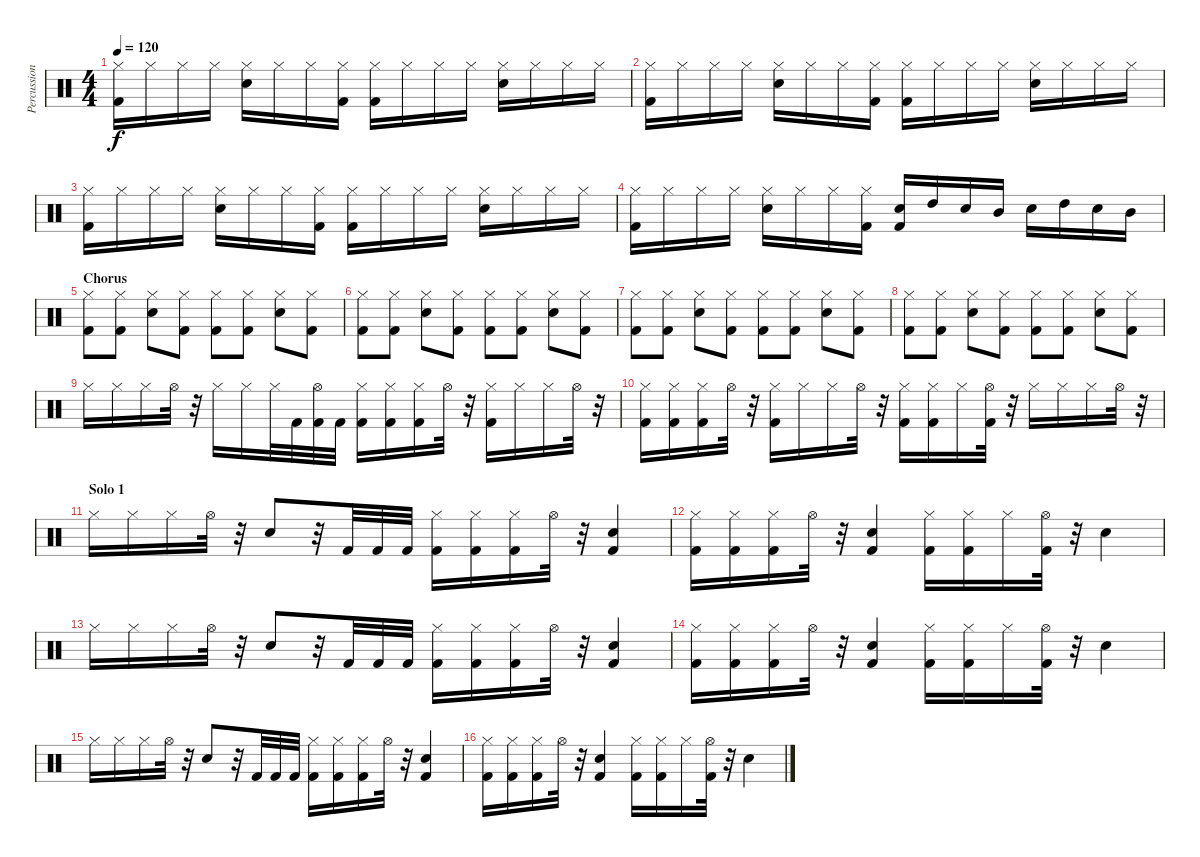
\track ("Percussion" "Percussion") {instrument percussion}
\staff {score}
\articulation defaults
\ts (4 4)
\tempo 120
\clef neutral
\ks c
("Hi-Hat (closed)" "Kick (hit) 2").16{dy f} "Hi-Hat (closed)".16 "Hi-Hat (closed)".16 "Hi-Hat (closed)".16 ("Hi-Hat (closed)" "Electric Snare (hit)").16 "Hi-Hat (closed)".16 "Hi-Hat (closed)".16 ("Hi-Hat (closed)" "Kick (hit) 2").16 ("Hi-Hat (closed)" "Kick (hit) 2").16 "Hi-Hat (closed)".16 "Hi-Hat (closed)".16 "Hi-Hat (closed)".16 ("Hi-Hat (closed)" "Electric Snare (hit)").16 "Hi-Hat (closed)".16 "Hi-Hat (closed)".16 "Hi-Hat (closed)".16 |
("Hi-Hat (closed)" "Kick (hit) 2").16 "Hi-Hat (closed)".16 "Hi-Hat (closed)".16 "Hi-Hat (closed)".16 ("Hi-Hat (closed)" "Electric Snare (hit)").16 "Hi-Hat (closed)".16 "Hi-Hat (closed)".16 ("Hi-Hat (closed)" "Kick (hit) 2").16 ("Hi-Hat (closed)" "Kick (hit) 2").16 "Hi-Hat (closed)".16 "Hi-Hat (closed)".16 "Hi-Hat (closed)".16 ("Hi-Hat (closed)" "Electric Snare (hit)").16 "Hi-Hat (closed)".16 "Hi-Hat (closed)".16 "Hi-Hat (closed)".16 |
("Hi-Hat (closed)" "Kick (hit) 2").16 "Hi-Hat (closed)".16 "Hi-Hat (closed)".16 "Hi-Hat (closed)".16 ("Hi-Hat (closed)" "Electric Snare (hit)").16 "Hi-Hat (closed)".16 "Hi-Hat (closed)".16 ("Hi-Hat (closed)" "Kick (hit) 2").16 ("Hi-Hat (closed)" "Kick (hit) 2").16 "Hi-Hat (closed)".16 "Hi-Hat (closed)".16 "Hi-Hat (closed)".16 ("Hi-Hat (closed)" "Electric Snare (hit)").16 "Hi-Hat (closed)".16 "Hi-Hat (closed)".16 "Hi-Hat (closed)".16 |
("Hi-Hat (closed)" "Kick (hit) 2").16 "Hi-Hat (closed)".16 "Hi-Hat (closed)".16 "Hi-Hat (closed)".16 ("Hi-Hat (closed)" "Electric Snare (hit)").16 "Hi-Hat (closed)".16 "Hi-Hat (closed)".16 ("Hi-Hat (closed)" "Kick (hit) 2").16 ("Electric Snare (hit)" "Kick (hit) 2").16 "High Tom (hit)".16 "Electric Snare (hit)".16 "Mid Tom (hit)".16 "Electric Snare (hit)".16 "High Tom (hit)".16 "Electric Snare (hit)".16 "Mid Tom (hit)".16 |
\section ("" "Chorus")
("Hi-Hat (closed)" "Kick (hit) 2").8 ("Hi-Hat (closed)" "Kick (hit) 2").8 ("Hi-Hat (closed)" "Electric Snare (hit)").8 ("Hi-Hat (closed)" "Kick (hit) 2").8 ("Hi-Hat (closed)" "Kick (hit) 2").8 ("Hi-Hat (closed)" "Kick (hit) 2").8 ("Hi-Hat (closed)" "Electric Snare (hit)").8 ("Hi-Hat (closed)" "Kick (hit) 2").8 |
("Hi-Hat (closed)" "Kick (hit) 2").8 ("Hi-Hat (closed)" "Kick (hit) 2").8 ("Hi-Hat (closed)" "Electric Snare (hit)").8 ("Hi-Hat (closed)" "Kick (hit) 2").8 ("Hi-Hat (closed)" "Kick (hit) 2").8 ("Hi-Hat (closed)" "Kick (hit) 2").8 ("Hi-Hat (closed)" "Electric Snare (hit)").8 ("Hi-Hat (closed)" "Kick (hit) 2").8 |
("Hi-Hat (closed)" "Kick (hit) 2").8 ("Hi-Hat (closed)" "Kick (hit) 2").8 ("Hi-Hat (closed)" "Electric Snare (hit)").8 ("Hi-Hat (closed)" "Kick (hit) 2").8 ("Hi-Hat (closed)" "Kick (hit) 2").8 ("Hi-Hat (closed)" "Kick (hit) 2").8 ("Hi-Hat (closed)" "Electric Snare (hit)").8 ("Hi-Hat (closed)" "Kick (hit) 2").8 |
("Hi-Hat (closed)" "Kick (hit) 2").8 ("Hi-Hat (closed)" "Kick (hit) 2").8 ("Hi-Hat (closed)" "Electric Snare (hit)").8 ("Hi-Hat (closed)" "Kick (hit) 2").8 ("Hi-Hat (closed)" "Kick (hit) 2").8 ("Hi-Hat (closed)" "Kick (hit) 2").8 ("Hi-Hat (closed)" "Electric Snare (hit)").8 ("Hi-Hat (closed)" "Kick (hit) 2").8 |
"Hi-Hat (closed)".16 "Hi-Hat (closed)".16 "Hi-Hat (closed)".16 "Hi-Hat (open)".32 r.32 "Hi-Hat (closed)".16 "Hi-Hat (closed)".16 "Hi-Hat (closed)".32 "Kick (hit) 2".32 ("Hi-Hat (open)" "Kick (hit) 2").32 "Kick (hit) 2".32 ("Hi-Hat (closed)" "Kick (hit) 2").16 ("Hi-Hat (closed)" "Kick (hit) 2").16 ("Hi-Hat (closed)" "Kick (hit) 2").16 "Hi-Hat (open)".32 r.32 ("Hi-Hat (closed)" "Kick (hit) 2").16 "Hi-Hat (closed)".16 "Hi-Hat (closed)".16 "Hi-Hat (open)".32 r.32 |
("Hi-Hat (closed)" "Kick (hit) 2").16 ("Hi-Hat (closed)" "Kick (hit) 2").16 ("Hi-Hat (closed)" "Kick (hit) 2").16 "Hi-Hat (open)".32 r.32 ("Hi-Hat (closed)" "Kick (hit) 2").16 "Hi-Hat (closed)".16 "Hi-Hat (closed)".16 "Hi-Hat (open)".32 r.32 ("Hi-Hat (closed)" "Kick (hit) 2").16 ("Hi-Hat (closed)" "Kick (hit) 2").16 "Hi-Hat (closed)".16 ("Hi-Hat (open)" "Kick (hit) 2").32 r.32 "Hi-Hat (closed)".16 "Hi-Hat (closed)".16 "Hi-Hat (closed)".16 "Hi-Hat (open)".32 r.32 |
\section ("" "Solo 1")
"Hi-Hat (closed)".16 "Hi-Hat (closed)".16 "Hi-Hat (closed)".16 "Hi-Hat (open)".32 r.32 "Electric Snare (hit)".8 r.32 "Kick (hit) 2".32 "Kick (hit) 2".32 "Kick (hit) 2".32 ("Hi-Hat (closed)" "Kick (hit) 2").16 ("Hi-Hat (closed)" "Kick (hit) 2").16 ("Hi-Hat (closed)" "Kick (hit) 2").16 "Hi-Hat (open)".32 r.32 ("Electric Snare (hit)" "Kick (hit) 2").4 |
("Hi-Hat (closed)" "Kick (hit) 2").16 ("Hi-Hat (closed)" "Kick (hit) 2").16 ("Hi-Hat (closed)" "Kick (hit) 2").16 "Hi-Hat (open)".32 r.32 ("Electric Snare (hit)" "Kick (hit) 2").4 ("Hi-Hat (closed)" "Kick (hit) 2").16 ("Hi-Hat (closed)" "Kick (hit) 2").16 "Hi-Hat (closed)".16 ("Hi-Hat (open)" "Kick (hit) 2").32 r.32 "Electric Snare (hit)".4 |
"Hi-Hat (closed)".16 "Hi-Hat (closed)".16 "Hi-Hat (closed)".16 "Hi-Hat (open)".32 r.32 "Electric Snare (hit)".8 r.32 "Kick (hit) 2".32 "Kick (hit) 2".32 "Kick (hit) 2".32 ("Hi-Hat (closed)" "Kick (hit) 2").16 ("Hi-Hat (closed)" "Kick (hit) 2").16 ("Hi-Hat (closed)" "Kick (hit) 2").16 "Hi-Hat (open)".32 r.32 ("Electric Snare (hit)" "Kick (hit) 2").4 |
("Hi-Hat (closed)" "Kick (hit) 2").16 ("Hi-Hat (closed)" "Kick (hit) 2").16 ("Hi-Hat (closed)" "Kick (hit) 2").16 "Hi-Hat (open)".32 r.32 ("Electric Snare (hit)" "Kick (hit) 2").4 ("Hi-Hat (closed)" "Kick (hit) 2").16 ("Hi-Hat (closed)" "Kick (hit) 2").16 "Hi-Hat (closed)".16 ("Hi-Hat (open)" "Kick (hit) 2").32 r.32 "Electric Snare (hit)".4 |
"Hi-Hat (closed)".16 "Hi-Hat (closed)".16 "Hi-Hat (closed)".16 "Hi-Hat (open)".32 r.32 "Electric Snare (hit)".8 r.32 "Kick (hit) 2".32 "Kick (hit) 2".32 "Kick (hit) 2".32 ("Hi-Hat (closed)" "Kick (hit) 2").16 ("Hi-Hat (closed)" "Kick (hit) 2").16 ("Hi-Hat (closed)" "Kick (hit) 2").16 "Hi-Hat (open)".32 r.32 ("Electric Snare (hit)" "Kick (hit) 2").4 |
("Hi-Hat (closed)" "Kick (hit) 2").16 ("Hi-Hat (closed)" "Kick (hit) 2").16 ("Hi-Hat (closed)" "Kick (hit) 2").16 "Hi-Hat (open)".32 r.32 ("Electric Snare (hit)" "Kick (hit) 2").4 ("Hi-Hat (closed)" "Kick (hit) 2").16 ("Hi-Hat (closed)" "Kick (hit) 2").16 "Hi-Hat (closed)".16 ("Hi-Hat (open)" "Kick (hit) 2").32 r.32 "Electric Snare (hit)".4
